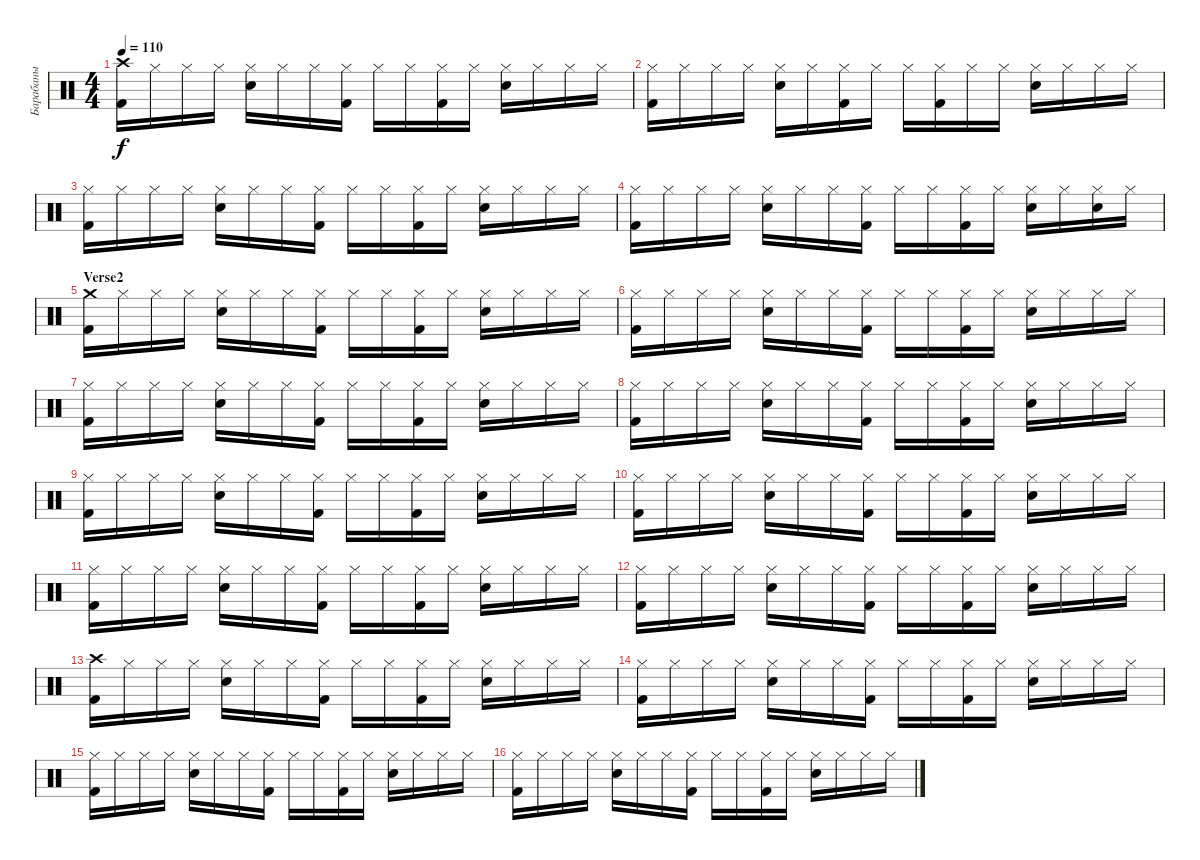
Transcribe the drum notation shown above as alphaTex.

\track ("Барабаны" "Барабаны") {instrument percussion}
\staff {score}
\articulation defaults
\ts (4 4)
\tempo 110
\clef neutral
\ks c
("Crash high (hit)" "Kick (hit) 2").16{dy f} "Hi-Hat (closed)".16 "Hi-Hat (closed)".16 "Hi-Hat (closed)".16 ("Hi-Hat (closed)" "Snare (hit) 2").16 "Hi-Hat (closed)".16 "Hi-Hat (closed)".16 ("Hi-Hat (closed)" "Kick (hit) 2").16 "Hi-Hat (closed)".16 "Hi-Hat (closed)".16 ("Hi-Hat (closed)" "Kick (hit) 2").16 "Hi-Hat (closed)".16 ("Hi-Hat (closed)" "Snare (hit) 2").16 "Hi-Hat (closed)".16 "Hi-Hat (closed)".16 "Hi-Hat (closed)".16 |
("Hi-Hat (closed)" "Kick (hit) 2").16 "Hi-Hat (closed)".16 "Hi-Hat (closed)".16 "Hi-Hat (closed)".16 ("Hi-Hat (closed)" "Snare (hit) 2").16 "Hi-Hat (closed)".16 ("Hi-Hat (closed)" "Kick (hit) 2").16 "Hi-Hat (closed)".16 "Hi-Hat (closed)".16 ("Hi-Hat (closed)" "Kick (hit) 2").16 "Hi-Hat (closed)".16 "Hi-Hat (closed)".16 ("Hi-Hat (closed)" "Snare (hit) 2").16 "Hi-Hat (closed)".16 "Hi-Hat (closed)".16 "Hi-Hat (closed)".16 |
("Hi-Hat (closed)" "Kick (hit) 2").16 "Hi-Hat (closed)".16 "Hi-Hat (closed)".16 "Hi-Hat (closed)".16 ("Hi-Hat (closed)" "Snare (hit) 2").16 "Hi-Hat (closed)".16 "Hi-Hat (closed)".16 ("Hi-Hat (closed)" "Kick (hit) 2").16 "Hi-Hat (closed)".16 "Hi-Hat (closed)".16 ("Hi-Hat (closed)" "Kick (hit) 2").16 "Hi-Hat (closed)".16 ("Hi-Hat (closed)" "Snare (hit) 2").16 "Hi-Hat (closed)".16 "Hi-Hat (closed)".16 "Hi-Hat (closed)".16 |
("Hi-Hat (closed)" "Kick (hit) 2").16 "Hi-Hat (closed)".16 "Hi-Hat (closed)".16 "Hi-Hat (closed)".16 ("Hi-Hat (closed)" "Snare (hit) 2").16 "Hi-Hat (closed)".16 "Hi-Hat (closed)".16 ("Hi-Hat (closed)" "Kick (hit) 2").16 "Hi-Hat (closed)".16 "Hi-Hat (closed)".16 ("Hi-Hat (closed)" "Kick (hit) 2").16 "Hi-Hat (closed)".16 ("Hi-Hat (closed)" "Snare (hit) 2").16 "Hi-Hat (closed)".16 ("Hi-Hat (closed)" "Snare (hit) 2").16 "Hi-Hat (closed)".16 |
\section ("" "Verse2")
("Crash medium (hit)" "Kick (hit) 2").16 "Hi-Hat (closed)".16 "Hi-Hat (closed)".16 "Hi-Hat (closed)".16 ("Hi-Hat (closed)" "Snare (hit) 2").16 "Hi-Hat (closed)".16 "Hi-Hat (closed)".16 ("Hi-Hat (closed)" "Kick (hit) 2").16 "Hi-Hat (closed)".16 "Hi-Hat (closed)".16 ("Hi-Hat (closed)" "Kick (hit) 2").16 "Hi-Hat (closed)".16 ("Hi-Hat (closed)" "Snare (hit) 2").16 "Hi-Hat (closed)".16 "Hi-Hat (closed)".16 "Hi-Hat (closed)".16 |
("Hi-Hat (closed)" "Kick (hit) 2").16 "Hi-Hat (closed)".16 "Hi-Hat (closed)".16 "Hi-Hat (closed)".16 ("Hi-Hat (closed)" "Snare (hit) 2").16 "Hi-Hat (closed)".16 "Hi-Hat (closed)".16 ("Hi-Hat (closed)" "Kick (hit) 2").16 "Hi-Hat (closed)".16 "Hi-Hat (closed)".16 ("Hi-Hat (closed)" "Kick (hit) 2").16 "Hi-Hat (closed)".16 ("Hi-Hat (closed)" "Snare (hit) 2").16 "Hi-Hat (closed)".16 "Hi-Hat (closed)".16 "Hi-Hat (closed)".16 |
("Hi-Hat (closed)" "Kick (hit) 2").16 "Hi-Hat (closed)".16 "Hi-Hat (closed)".16 "Hi-Hat (closed)".16 ("Hi-Hat (closed)" "Snare (hit) 2").16 "Hi-Hat (closed)".16 "Hi-Hat (closed)".16 ("Hi-Hat (closed)" "Kick (hit) 2").16 "Hi-Hat (closed)".16 "Hi-Hat (closed)".16 ("Hi-Hat (closed)" "Kick (hit) 2").16 "Hi-Hat (closed)".16 ("Hi-Hat (closed)" "Snare (hit) 2").16 "Hi-Hat (closed)".16 "Hi-Hat (closed)".16 "Hi-Hat (closed)".16 |
("Hi-Hat (closed)" "Kick (hit) 2").16 "Hi-Hat (closed)".16 "Hi-Hat (closed)".16 "Hi-Hat (closed)".16 ("Hi-Hat (closed)" "Snare (hit) 2").16 "Hi-Hat (closed)".16 "Hi-Hat (closed)".16 ("Hi-Hat (closed)" "Kick (hit) 2").16 "Hi-Hat (closed)".16 "Hi-Hat (closed)".16 ("Hi-Hat (closed)" "Kick (hit) 2").16 "Hi-Hat (closed)".16 ("Hi-Hat (closed)" "Snare (hit) 2").16 "Hi-Hat (closed)".16 "Hi-Hat (closed)".16 "Hi-Hat (closed)".16 |
("Hi-Hat (closed)" "Kick (hit) 2").16 "Hi-Hat (closed)".16 "Hi-Hat (closed)".16 "Hi-Hat (closed)".16 ("Hi-Hat (closed)" "Snare (hit) 2").16 "Hi-Hat (closed)".16 "Hi-Hat (closed)".16 ("Hi-Hat (closed)" "Kick (hit) 2").16 "Hi-Hat (closed)".16 "Hi-Hat (closed)".16 ("Hi-Hat (closed)" "Kick (hit) 2").16 "Hi-Hat (closed)".16 ("Hi-Hat (closed)" "Snare (hit) 2").16 "Hi-Hat (closed)".16 "Hi-Hat (closed)".16 "Hi-Hat (closed)".16 |
("Hi-Hat (closed)" "Kick (hit) 2").16 "Hi-Hat (closed)".16 "Hi-Hat (closed)".16 "Hi-Hat (closed)".16 ("Hi-Hat (closed)" "Snare (hit) 2").16 "Hi-Hat (closed)".16 "Hi-Hat (closed)".16 ("Hi-Hat (closed)" "Kick (hit) 2").16 "Hi-Hat (closed)".16 "Hi-Hat (closed)".16 ("Hi-Hat (closed)" "Kick (hit) 2").16 "Hi-Hat (closed)".16 ("Hi-Hat (closed)" "Snare (hit) 2").16 "Hi-Hat (closed)".16 "Hi-Hat (closed)".16 "Hi-Hat (closed)".16 |
("Hi-Hat (closed)" "Kick (hit) 2").16 "Hi-Hat (closed)".16 "Hi-Hat (closed)".16 "Hi-Hat (closed)".16 ("Hi-Hat (closed)" "Snare (hit) 2").16 "Hi-Hat (closed)".16 "Hi-Hat (closed)".16 ("Hi-Hat (closed)" "Kick (hit) 2").16 "Hi-Hat (closed)".16 "Hi-Hat (closed)".16 ("Hi-Hat (closed)" "Kick (hit) 2").16 "Hi-Hat (closed)".16 ("Hi-Hat (closed)" "Snare (hit) 2").16 "Hi-Hat (closed)".16 "Hi-Hat (closed)".16 "Hi-Hat (closed)".16 |
("Hi-Hat (closed)" "Kick (hit) 2").16 "Hi-Hat (closed)".16 "Hi-Hat (closed)".16 "Hi-Hat (closed)".16 ("Hi-Hat (closed)" "Snare (hit) 2").16 "Hi-Hat (closed)".16 "Hi-Hat (closed)".16 ("Hi-Hat (closed)" "Kick (hit) 2").16 "Hi-Hat (closed)".16 "Hi-Hat (closed)".16 ("Hi-Hat (closed)" "Kick (hit) 2").16 "Hi-Hat (closed)".16 ("Hi-Hat (closed)" "Snare (hit) 2").16 "Hi-Hat (closed)".16 "Hi-Hat (closed)".16 "Hi-Hat (closed)".16 |
("Crash high (hit)" "Kick (hit) 2").16 "Hi-Hat (closed)".16 "Hi-Hat (closed)".16 "Hi-Hat (closed)".16 ("Hi-Hat (closed)" "Snare (hit) 2").16 "Hi-Hat (closed)".16 "Hi-Hat (closed)".16 ("Hi-Hat (closed)" "Kick (hit) 2").16 "Hi-Hat (closed)".16 "Hi-Hat (closed)".16 ("Hi-Hat (closed)" "Kick (hit) 2").16 "Hi-Hat (closed)".16 ("Hi-Hat (closed)" "Snare (hit) 2").16 "Hi-Hat (closed)".16 "Hi-Hat (closed)".16 "Hi-Hat (closed)".16 |
("Hi-Hat (closed)" "Kick (hit) 2").16 "Hi-Hat (closed)".16 "Hi-Hat (closed)".16 "Hi-Hat (closed)".16 ("Hi-Hat (closed)" "Snare (hit) 2").16 "Hi-Hat (closed)".16 "Hi-Hat (closed)".16 ("Hi-Hat (closed)" "Kick (hit) 2").16 "Hi-Hat (closed)".16 "Hi-Hat (closed)".16 ("Hi-Hat (closed)" "Kick (hit) 2").16 "Hi-Hat (closed)".16 ("Hi-Hat (closed)" "Snare (hit) 2").16 "Hi-Hat (closed)".16 "Hi-Hat (closed)".16 "Hi-Hat (closed)".16 |
("Hi-Hat (closed)" "Kick (hit) 2").16 "Hi-Hat (closed)".16 "Hi-Hat (closed)".16 "Hi-Hat (closed)".16 ("Hi-Hat (closed)" "Snare (hit) 2").16 "Hi-Hat (closed)".16 "Hi-Hat (closed)".16 ("Hi-Hat (closed)" "Kick (hit) 2").16 "Hi-Hat (closed)".16 "Hi-Hat (closed)".16 ("Hi-Hat (closed)" "Kick (hit) 2").16 "Hi-Hat (closed)".16 ("Hi-Hat (closed)" "Snare (hit) 2").16 "Hi-Hat (closed)".16 "Hi-Hat (closed)".16 "Hi-Hat (closed)".16 |
("Hi-Hat (closed)" "Kick (hit) 2").16 "Hi-Hat (closed)".16 "Hi-Hat (closed)".16 "Hi-Hat (closed)".16 ("Hi-Hat (closed)" "Snare (hit) 2").16 "Hi-Hat (closed)".16 "Hi-Hat (closed)".16 ("Hi-Hat (closed)" "Kick (hit) 2").16 "Hi-Hat (closed)".16 "Hi-Hat (closed)".16 ("Hi-Hat (closed)" "Kick (hit) 2").16 "Hi-Hat (closed)".16 ("Hi-Hat (closed)" "Snare (hit) 2").16 "Hi-Hat (closed)".16 "Hi-Hat (closed)".16 "Hi-Hat (closed)".16
